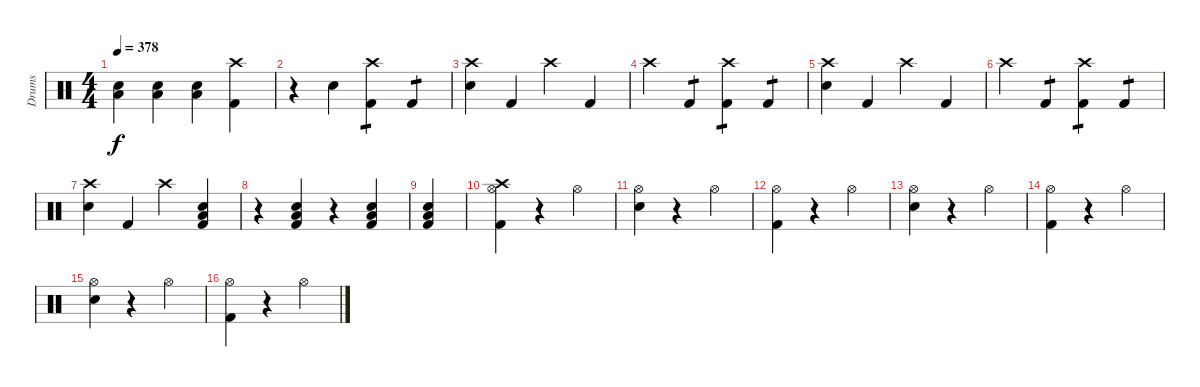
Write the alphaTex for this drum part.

\track ("Drums" "Drums") {instrument percussion}
\staff {score}
\articulation defaults
\ts (4 4)
\tempo 378
\clef neutral
\ks c
("Low Floor Tom (hit)" "Electric Snare (hit)").4{dy f} ("Low Floor Tom (hit)" "Electric Snare (hit)").4 ("Low Floor Tom (hit)" "Electric Snare (hit)").4 ("Crash high (hit)" "Kick (hit) 2").4 |
r.4 "Electric Snare (hit)".4 ("Crash high (hit)" "Kick (hit) 2").4{tp 1} "Kick (hit) 2".4{tp 1} |
("Crash high (hit)" "Electric Snare (hit)").4 "Kick (hit) 2".4 "Crash high (hit)".4 "Kick (hit) 2".4 |
"Crash high (hit)".4 "Kick (hit) 2".4{tp 1} ("Crash high (hit)" "Kick (hit) 2").4{tp 1} "Kick (hit) 2".4{tp 1} |
("Crash high (hit)" "Electric Snare (hit)").4 "Kick (hit) 2".4 "Crash high (hit)".4 "Kick (hit) 2".4 |
"Crash high (hit)".4 "Kick (hit) 2".4{tp 1} ("Crash high (hit)" "Kick (hit) 2").4{tp 1} "Kick (hit) 2".4{tp 1} |
("Crash high (hit)" "Electric Snare (hit)").4 "Kick (hit) 2".4 "Crash high (hit)".4 ("Low Floor Tom (hit)" "Electric Snare (hit)" "Kick (hit) 2").4 |
r.4 ("Low Floor Tom (hit)" "Electric Snare (hit)" "Kick (hit) 2").4 r.4 ("Low Floor Tom (hit)" "Electric Snare (hit)" "Kick (hit) 2").4 |
("Low Floor Tom (hit)" "Electric Snare (hit)" "Kick (hit) 2").4 |
("Crash high (hit)" "Hi-Hat (open)" "Kick (hit) 2").4 r.4 "Hi-Hat (open)".4 |
("Hi-Hat (open)" "Electric Snare (hit)").4 r.4 "Hi-Hat (open)".4 |
("Hi-Hat (open)" "Kick (hit) 2").4 r.4 "Hi-Hat (open)".4 |
("Hi-Hat (open)" "Electric Snare (hit)").4 r.4 "Hi-Hat (open)".4 |
("Hi-Hat (open)" "Kick (hit) 2").4 r.4 "Hi-Hat (open)".4 |
("Hi-Hat (open)" "Electric Snare (hit)").4 r.4 "Hi-Hat (open)".4 |
("Hi-Hat (open)" "Kick (hit) 2").4 r.4 "Hi-Hat (open)".4
